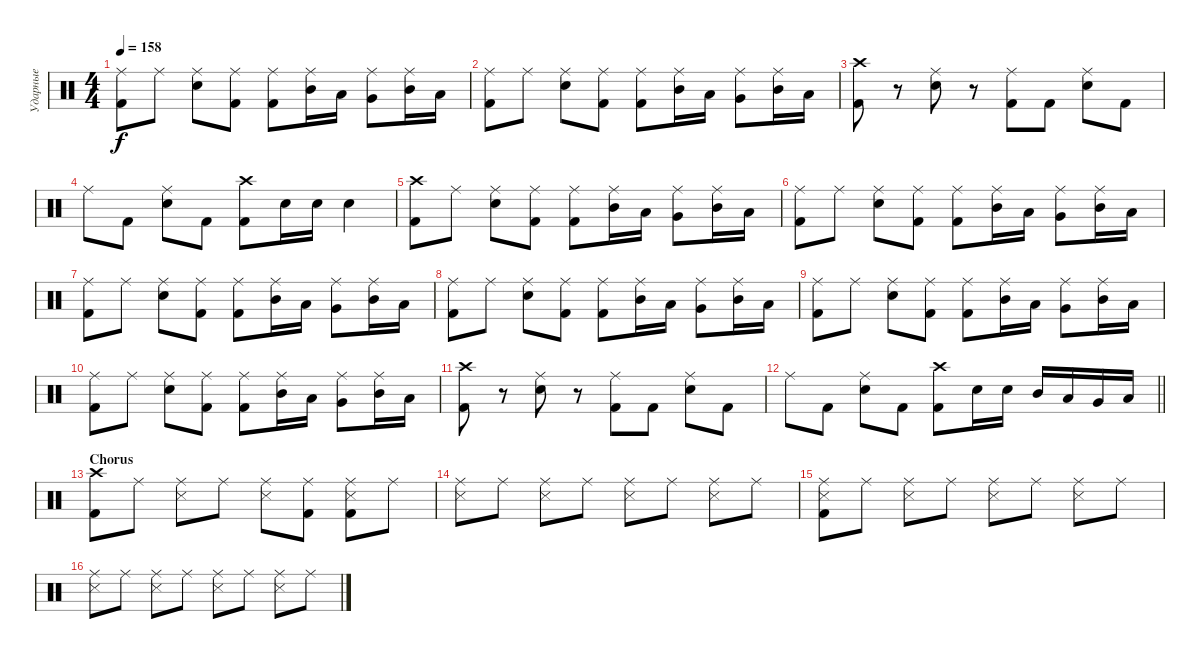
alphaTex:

\track ("Ударные" "Ударные") {instrument percussion}
\staff {score}
\articulation defaults
\ts (4 4)
\tempo 158
\clef neutral
\ks c
("Ride (middle)" "Kick (hit) 2").8{dy f} "Ride (middle)".8 ("Ride (middle)" "Electric Snare (hit)").8 ("Ride (middle)" "Kick (hit) 2").8 ("Ride (middle)" "Kick (hit) 2").8 ("Ride (middle)" "Mid Tom (hit)").16 "Low Tom (hit)".16 ("Ride (middle)" "Very Low Tom (hit)").8 ("Ride (middle)" "Mid Tom (hit)").16 "Low Tom (hit)".16 |
("Ride (middle)" "Kick (hit) 2").8 "Ride (middle)".8 ("Ride (middle)" "Electric Snare (hit)").8 ("Ride (middle)" "Kick (hit) 2").8 ("Ride (middle)" "Kick (hit) 2").8 ("Ride (middle)" "Mid Tom (hit)").16 "Low Tom (hit)".16 ("Ride (middle)" "Very Low Tom (hit)").8 ("Ride (middle)" "Mid Tom (hit)").16 "Low Tom (hit)".16 |
("Crash high (hit)" "Kick (hit) 2").8 r.8 ("Ride (middle)" "Electric Snare (hit)").8 r.8 ("Ride (middle)" "Kick (hit) 2").8 "Kick (hit) 2".8 ("Ride (middle)" "Electric Snare (hit)").8 "Kick (hit) 2".8 |
"Ride (middle)".8 "Kick (hit) 2".8 ("Ride (middle)" "Electric Snare (hit)").8 "Kick (hit) 2".8 ("Crash high (hit)" "Kick (hit) 2").8 "Electric Snare (hit)".16 "Electric Snare (hit)".16 "Electric Snare (hit)".4 |
("Crash high (hit)" "Kick (hit) 2").8 "Ride (middle)".8 ("Ride (middle)" "Electric Snare (hit)").8 ("Ride (middle)" "Kick (hit) 2").8 ("Ride (middle)" "Kick (hit) 2").8 ("Ride (middle)" "Mid Tom (hit)").16 "Low Tom (hit)".16 ("Ride (middle)" "Very Low Tom (hit)").8 ("Ride (middle)" "Mid Tom (hit)").16 "Low Tom (hit)".16 |
("Ride (middle)" "Kick (hit) 2").8 "Ride (middle)".8 ("Ride (middle)" "Electric Snare (hit)").8 ("Ride (middle)" "Kick (hit) 2").8 ("Ride (middle)" "Kick (hit) 2").8 ("Ride (middle)" "Mid Tom (hit)").16 "Low Tom (hit)".16 ("Ride (middle)" "Very Low Tom (hit)").8 ("Ride (middle)" "Mid Tom (hit)").16 "Low Tom (hit)".16 |
("Ride (middle)" "Kick (hit) 2").8 "Ride (middle)".8 ("Ride (middle)" "Electric Snare (hit)").8 ("Ride (middle)" "Kick (hit) 2").8 ("Ride (middle)" "Kick (hit) 2").8 ("Ride (middle)" "Mid Tom (hit)").16 "Low Tom (hit)".16 ("Ride (middle)" "Very Low Tom (hit)").8 ("Ride (middle)" "Mid Tom (hit)").16 "Low Tom (hit)".16 |
("Ride (middle)" "Kick (hit) 2").8 "Ride (middle)".8 ("Ride (middle)" "Electric Snare (hit)").8 ("Ride (middle)" "Kick (hit) 2").8 ("Ride (middle)" "Kick (hit) 2").8 ("Ride (middle)" "Mid Tom (hit)").16 "Low Tom (hit)".16 ("Ride (middle)" "Very Low Tom (hit)").8 ("Ride (middle)" "Mid Tom (hit)").16 "Low Tom (hit)".16 |
("Ride (middle)" "Kick (hit) 2").8 "Ride (middle)".8 ("Ride (middle)" "Electric Snare (hit)").8 ("Ride (middle)" "Kick (hit) 2").8 ("Ride (middle)" "Kick (hit) 2").8 ("Ride (middle)" "Mid Tom (hit)").16 "Low Tom (hit)".16 ("Ride (middle)" "Very Low Tom (hit)").8 ("Ride (middle)" "Mid Tom (hit)").16 "Low Tom (hit)".16 |
("Ride (middle)" "Kick (hit) 2").8 "Ride (middle)".8 ("Ride (middle)" "Electric Snare (hit)").8 ("Ride (middle)" "Kick (hit) 2").8 ("Ride (middle)" "Kick (hit) 2").8 ("Ride (middle)" "Mid Tom (hit)").16 "Low Tom (hit)".16 ("Ride (middle)" "Very Low Tom (hit)").8 ("Ride (middle)" "Mid Tom (hit)").16 "Low Tom (hit)".16 |
("Crash high (hit)" "Kick (hit) 2").8 r.8 ("Ride (middle)" "Electric Snare (hit)").8 r.8 ("Ride (middle)" "Kick (hit) 2").8 "Kick (hit) 2".8 ("Ride (middle)" "Electric Snare (hit)").8 "Kick (hit) 2".8 |
\barLineRight lightlight "Ride (middle)".8 "Kick (hit) 2".8
("Ride (middle)" "Electric Snare (hit)").8 "Kick (hit) 2".8 ("Crash high (hit)" "Kick (hit) 2").8 "Electric Snare (hit)".16 "Electric Snare (hit)".16 "Mid Tom (hit)".16 "Low Tom (hit)".16 "Very Low Tom (hit)".16 "Low Floor Tom (hit)".16 |
\section ("" "Chorus")
("Crash high (hit)" "Kick (hit) 2").8 "Ride (middle)".8 ("Ride (middle)" "Snare (side stick) 3").8 "Ride (middle)".8 ("Ride (middle)" "Snare (side stick) 3").8 ("Ride (middle)" "Kick (hit) 2").8 ("Ride (middle)" "Snare (side stick) 3" "Kick (hit) 2").8 "Ride (middle)".8 |
("Ride (middle)" "Snare (side stick) 3").8 "Ride (middle)".8 ("Ride (middle)" "Snare (side stick) 3").8 "Ride (middle)".8 ("Ride (middle)" "Snare (side stick) 3").8 "Ride (middle)".8 ("Ride (middle)" "Snare (side stick) 3").8 "Ride (middle)".8 |
("Ride (middle)" "Snare (side stick) 3" "Kick (hit) 2").8 "Ride (middle)".8 ("Ride (middle)" "Snare (side stick) 3").8 "Ride (middle)".8 ("Ride (middle)" "Snare (side stick) 3").8 "Ride (middle)".8 ("Ride (middle)" "Snare (side stick) 3").8 "Ride (middle)".8 |
("Ride (middle)" "Snare (side stick) 3").8 "Ride (middle)".8 ("Ride (middle)" "Snare (side stick) 3").8 "Ride (middle)".8 ("Ride (middle)" "Snare (side stick) 3").8 "Ride (middle)".8 ("Ride (middle)" "Snare (side stick) 3").8 "Ride (middle)".8
